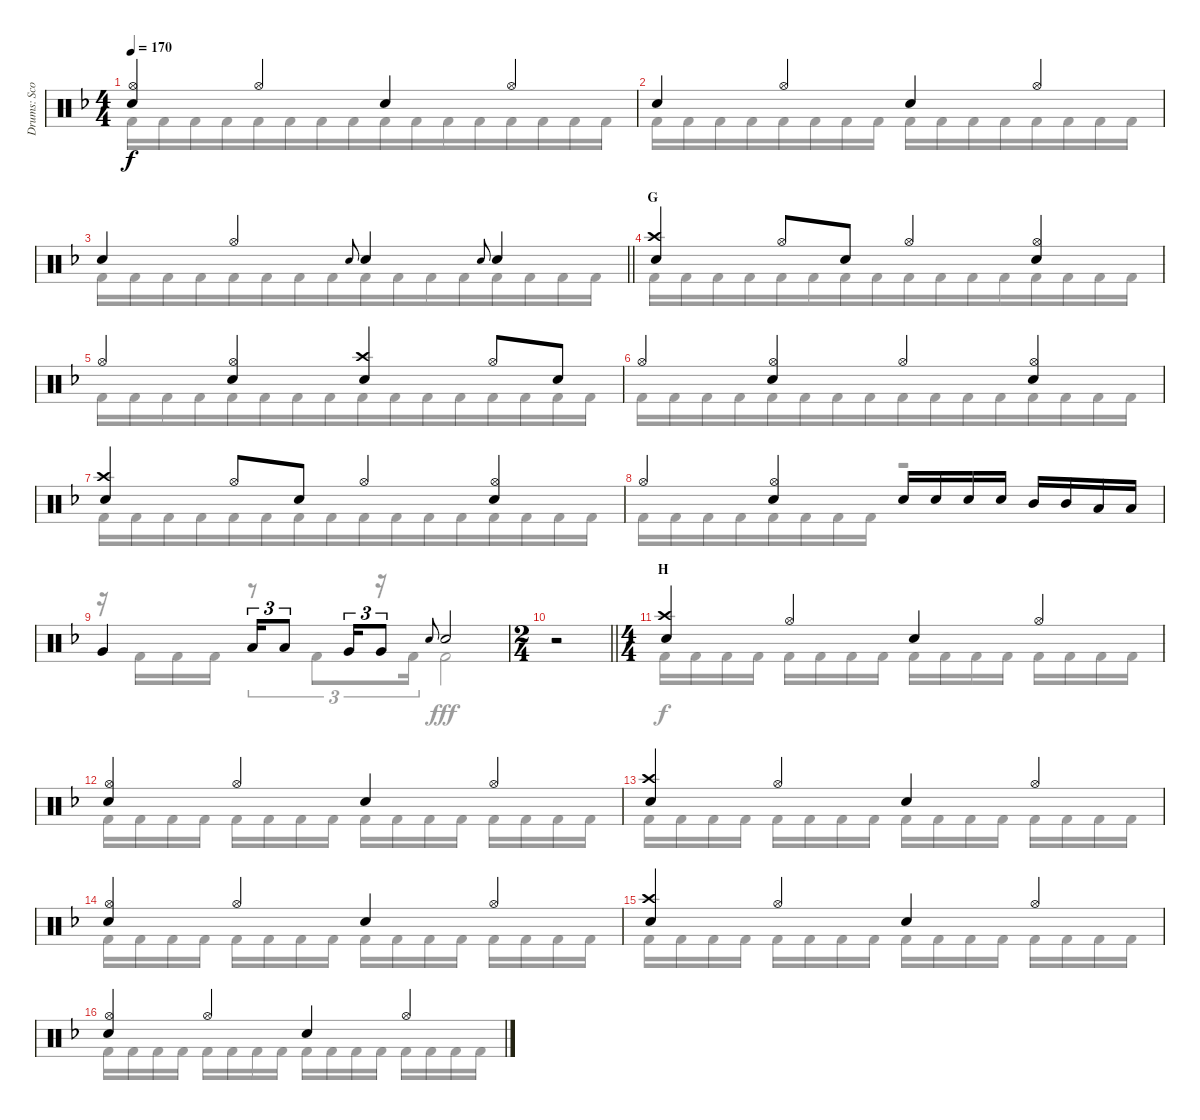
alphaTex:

\track ("Drums: Scott" "Drums: Sco") {instrument percussion}
\staff {score}
\articulation defaults
\voice
\ts (4 4)
\tempo 170
\clef neutral
\ks f
("Hi-Hat (open)" "Snare (hit) 2").4{dy f} "Hi-Hat (open)".4 "Snare (hit) 2".4 "Hi-Hat (open)".4 |
"Snare (hit) 2".4 "Hi-Hat (open)".4 "Snare (hit) 2".4 "Hi-Hat (open)".4 |
\barLineRight lightlight "Snare (hit) 2".4 "Hi-Hat (open)".4 "Electric Snare (hit)".8{gr onbeat} "Snare (hit) 2".4 "Electric Snare (hit)".8{gr onbeat} "Snare (hit) 2".4
|
\section ("" "G")
("Crash high (hit)" "Snare (hit) 2").4 "Hi-Hat (open)".8 "Snare (hit) 2".8 "Hi-Hat (open)".4 ("Hi-Hat (open)" "Snare (hit) 2").4 |
"Hi-Hat (open)".4 ("Hi-Hat (open)" "Snare (hit) 2").4 ("Crash high (hit)" "Snare (hit) 2").4 "Hi-Hat (open)".8 "Snare (hit) 2".8 |
"Hi-Hat (open)".4 ("Hi-Hat (open)" "Snare (hit) 2").4 "Hi-Hat (open)".4 ("Hi-Hat (open)" "Snare (hit) 2").4 |
("Crash high (hit)" "Snare (hit) 2").4 "Hi-Hat (open)".8 "Snare (hit) 2".8 "Hi-Hat (open)".4 ("Hi-Hat (open)" "Snare (hit) 2").4 |
"Hi-Hat (open)".4 ("Hi-Hat (open)" "Snare (hit) 2").4 "Snare (hit) 2".16 "Snare (hit) 2".16{beam merge} "Snare (hit) 2".16 "Snare (hit) 2".16 "Mid Tom (hit)".16 "Mid Tom (hit)".16{beam merge} "Low Tom (hit)".16 "Low Tom (hit)".16 |
"Very Low Tom (hit)".4 "Low Tom (hit)".16{tu (3 2)} "Low Tom (hit)".8{tu (3 2)} "Very Low Tom (hit)".16{tu (3 2)} "Very Low Tom (hit)".8{tu (3 2)} "Electric Snare (hit)".8{gr onbeat} "Snare (hit) 2".2 |
\ts (2 4)
\barLineRight lightlight
r.2 |
\ts (4 4)
\section ("" "H")
("Crash high (hit)" "Snare (hit) 2").4 "Hi-Hat (open)".4 "Snare (hit) 2".4 "Hi-Hat (open)".4 |
("Hi-Hat (open)" "Snare (hit) 2").4 "Hi-Hat (open)".4 "Snare (hit) 2".4 "Hi-Hat (open)".4 |
("Crash high (hit)" "Snare (hit) 2").4 "Hi-Hat (open)".4 "Snare (hit) 2".4 "Hi-Hat (open)".4 |
("Hi-Hat (open)" "Snare (hit) 2").4 "Hi-Hat (open)".4 "Snare (hit) 2".4 "Hi-Hat (open)".4 |
("Crash high (hit)" "Snare (hit) 2").4 "Hi-Hat (open)".4 "Snare (hit) 2".4 "Hi-Hat (open)".4 |
("Hi-Hat (open)" "Snare (hit) 2").4 "Hi-Hat (open)".4 "Snare (hit) 2".4 "Hi-Hat (open)".4
\voice
\clef neutral
\ottava regular
\simile none
\ks f "Kick (hit) 2".16{dy f beam merge} "Kick (hit) 2".16{beam merge} "Kick (hit) 2".16{beam merge} "Kick (hit) 2".16{beam merge} "Kick (hit) 2".16{beam merge} "Kick (hit) 2".16{beam merge} "Kick (hit) 2".16{beam merge} "Kick (hit) 2".16{beam merge} "Kick (hit) 2".16{beam merge} "Kick (hit) 2".16{beam merge} "Kick (hit) 2".16{beam merge} "Kick (hit) 2".16{beam merge} "Kick (hit) 2".16{beam merge} "Kick (hit) 2".16{beam merge} "Kick (hit) 2".16{beam merge} "Kick (hit) 2".16
|
"Kick (hit) 2".16{beam merge} "Kick (hit) 2".16{beam merge} "Kick (hit) 2".16{beam merge} "Kick (hit) 2".16{beam merge} "Kick (hit) 2".16{beam merge} "Kick (hit) 2".16{beam merge} "Kick (hit) 2".16{beam merge} "Kick (hit) 2".16 "Kick (hit) 2".16{beam merge} "Kick (hit) 2".16{beam merge} "Kick (hit) 2".16{beam merge} "Kick (hit) 2".16{beam merge} "Kick (hit) 2".16{beam merge} "Kick (hit) 2".16{beam merge} "Kick (hit) 2".16{beam merge} "Kick (hit) 2".16 |
\barLineRight lightlight "Kick (hit) 2".16{beam merge} "Kick (hit) 2".16{beam merge} "Kick (hit) 2".16{beam merge} "Kick (hit) 2".16{beam merge} "Kick (hit) 2".16{beam merge} "Kick (hit) 2".16{beam merge} "Kick (hit) 2".16{beam merge} "Kick (hit) 2".16{beam merge} "Kick (hit) 2".16{beam merge} "Kick (hit) 2".16{beam merge} "Kick (hit) 2".16{beam merge} "Kick (hit) 2".16{beam merge} "Kick (hit) 2".16{beam merge} "Kick (hit) 2".16{beam merge} "Kick (hit) 2".16{beam merge} "Kick (hit) 2".16
|
"Kick (hit) 2".16{beam merge} "Kick (hit) 2".16{beam merge} "Kick (hit) 2".16{beam merge} "Kick (hit) 2".16{beam merge} "Kick (hit) 2".16{beam merge} "Kick (hit) 2".16{beam merge} "Kick (hit) 2".16{beam merge} "Kick (hit) 2".16{beam merge} "Kick (hit) 2".16{beam merge} "Kick (hit) 2".16{beam merge} "Kick (hit) 2".16{beam merge} "Kick (hit) 2".16{beam merge} "Kick (hit) 2".16{beam merge} "Kick (hit) 2".16{beam merge} "Kick (hit) 2".16{beam merge} "Kick (hit) 2".16 |
"Kick (hit) 2".16{beam merge} "Kick (hit) 2".16{beam merge} "Kick (hit) 2".16{beam merge} "Kick (hit) 2".16{beam merge} "Kick (hit) 2".16{beam merge} "Kick (hit) 2".16{beam merge} "Kick (hit) 2".16{beam merge} "Kick (hit) 2".16{beam merge} "Kick (hit) 2".16{beam merge} "Kick (hit) 2".16{beam merge} "Kick (hit) 2".16{beam merge} "Kick (hit) 2".16{beam merge} "Kick (hit) 2".16{beam merge} "Kick (hit) 2".16{beam merge} "Kick (hit) 2".16{beam merge} "Kick (hit) 2".16 |
"Kick (hit) 2".16{beam merge} "Kick (hit) 2".16{beam merge} "Kick (hit) 2".16{beam merge} "Kick (hit) 2".16{beam merge} "Kick (hit) 2".16{beam merge} "Kick (hit) 2".16{beam merge} "Kick (hit) 2".16{beam merge} "Kick (hit) 2".16{beam merge} "Kick (hit) 2".16{beam merge} "Kick (hit) 2".16{beam merge} "Kick (hit) 2".16{beam merge} "Kick (hit) 2".16{beam merge} "Kick (hit) 2".16{beam merge} "Kick (hit) 2".16{beam merge} "Kick (hit) 2".16{beam merge} "Kick (hit) 2".16 |
"Kick (hit) 2".16{beam merge} "Kick (hit) 2".16{beam merge} "Kick (hit) 2".16{beam merge} "Kick (hit) 2".16{beam merge} "Kick (hit) 2".16{beam merge} "Kick (hit) 2".16{beam merge} "Kick (hit) 2".16{beam merge} "Kick (hit) 2".16{beam merge} "Kick (hit) 2".16{beam merge} "Kick (hit) 2".16{beam merge} "Kick (hit) 2".16{beam merge} "Kick (hit) 2".16{beam merge} "Kick (hit) 2".16{beam merge} "Kick (hit) 2".16{beam merge} "Kick (hit) 2".16{beam merge} "Kick (hit) 2".16 |
"Kick (hit) 2".16{beam merge} "Kick (hit) 2".16{beam merge} "Kick (hit) 2".16{beam merge} "Kick (hit) 2".16{beam merge} "Kick (hit) 2".16{beam merge} "Kick (hit) 2".16{beam merge} "Kick (hit) 2".16{beam merge} "Kick (hit) 2".16 r.2 |
r.16 "Kick (hit) 2".16 "Kick (hit) 2".16 "Kick (hit) 2".16 r.8{tu (3 2)} "Kick (hit) 2".8{tu (3 2)} r.16{tu (3 2)} "Kick (hit) 2".16{tu (3 2)} "Kick (hit) 2".2{dy fff} |
\barLineRight lightlight
|
"Kick (hit) 2".16{dy f} "Kick (hit) 2".16{beam merge} "Kick (hit) 2".16 "Kick (hit) 2".16 "Kick (hit) 2".16 "Kick (hit) 2".16{beam merge} "Kick (hit) 2".16 "Kick (hit) 2".16 "Kick (hit) 2".16 "Kick (hit) 2".16{beam merge} "Kick (hit) 2".16 "Kick (hit) 2".16 "Kick (hit) 2".16 "Kick (hit) 2".16{beam merge} "Kick (hit) 2".16 "Kick (hit) 2".16 |
"Kick (hit) 2".16 "Kick (hit) 2".16{beam merge} "Kick (hit) 2".16 "Kick (hit) 2".16 "Kick (hit) 2".16 "Kick (hit) 2".16{beam merge} "Kick (hit) 2".16 "Kick (hit) 2".16 "Kick (hit) 2".16 "Kick (hit) 2".16{beam merge} "Kick (hit) 2".16 "Kick (hit) 2".16 "Kick (hit) 2".16 "Kick (hit) 2".16{beam merge} "Kick (hit) 2".16 "Kick (hit) 2".16 |
"Kick (hit) 2".16 "Kick (hit) 2".16{beam merge} "Kick (hit) 2".16 "Kick (hit) 2".16 "Kick (hit) 2".16 "Kick (hit) 2".16{beam merge} "Kick (hit) 2".16 "Kick (hit) 2".16 "Kick (hit) 2".16 "Kick (hit) 2".16{beam merge} "Kick (hit) 2".16 "Kick (hit) 2".16 "Kick (hit) 2".16 "Kick (hit) 2".16{beam merge} "Kick (hit) 2".16 "Kick (hit) 2".16 |
"Kick (hit) 2".16 "Kick (hit) 2".16{beam merge} "Kick (hit) 2".16 "Kick (hit) 2".16 "Kick (hit) 2".16 "Kick (hit) 2".16{beam merge} "Kick (hit) 2".16 "Kick (hit) 2".16 "Kick (hit) 2".16 "Kick (hit) 2".16{beam merge} "Kick (hit) 2".16 "Kick (hit) 2".16 "Kick (hit) 2".16 "Kick (hit) 2".16{beam merge} "Kick (hit) 2".16 "Kick (hit) 2".16 |
"Kick (hit) 2".16 "Kick (hit) 2".16{beam merge} "Kick (hit) 2".16 "Kick (hit) 2".16 "Kick (hit) 2".16 "Kick (hit) 2".16{beam merge} "Kick (hit) 2".16 "Kick (hit) 2".16 "Kick (hit) 2".16 "Kick (hit) 2".16{beam merge} "Kick (hit) 2".16 "Kick (hit) 2".16 "Kick (hit) 2".16 "Kick (hit) 2".16{beam merge} "Kick (hit) 2".16 "Kick (hit) 2".16 |
"Kick (hit) 2".16 "Kick (hit) 2".16{beam merge} "Kick (hit) 2".16 "Kick (hit) 2".16 "Kick (hit) 2".16 "Kick (hit) 2".16{beam merge} "Kick (hit) 2".16 "Kick (hit) 2".16 "Kick (hit) 2".16 "Kick (hit) 2".16{beam merge} "Kick (hit) 2".16 "Kick (hit) 2".16 "Kick (hit) 2".16 "Kick (hit) 2".16{beam merge} "Kick (hit) 2".16 "Kick (hit) 2".16
